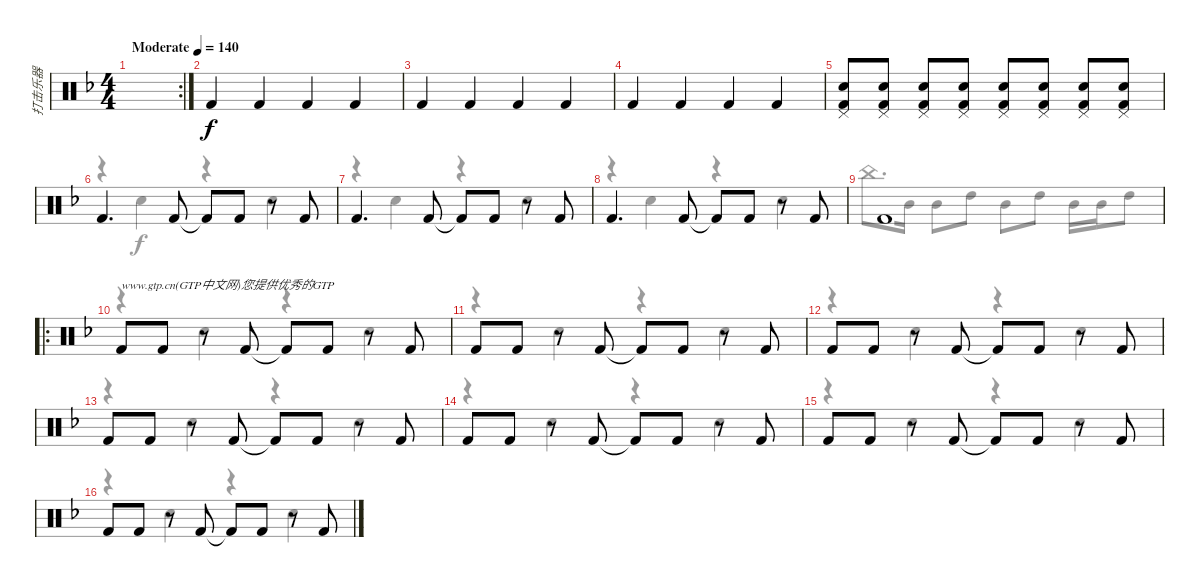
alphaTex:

\track ("打击乐器" "打击乐器") {instrument percussion}
\staff {score}
\articulation defaults
\voice
\rc 2
\ts (4 4)
\tempo (140 "Moderate")
\clef neutral
\ks f
|
"Kick (hit) 2".4 "Kick (hit) 2".4 "Kick (hit) 2".4 "Kick (hit) 2".4 |
"Kick (hit) 2".4 "Kick (hit) 2".4 "Kick (hit) 2".4 "Kick (hit) 2".4 |
"Kick (hit) 2".4 "Kick (hit) 2".4 "Kick (hit) 2".4 "Kick (hit) 2".4 |
("Pedal Hi-Hat (hit)" "Snare (hit) 2" "Kick (hit) 2").8 ("Pedal Hi-Hat (hit)" "Snare (hit) 2" "Kick (hit) 2").8 ("Pedal Hi-Hat (hit)" "Snare (hit) 2" "Kick (hit) 2").8 ("Pedal Hi-Hat (hit)" "Snare (hit) 2" "Kick (hit) 2").8 ("Pedal Hi-Hat (hit)" "Snare (hit) 2" "Kick (hit) 2").8 ("Pedal Hi-Hat (hit)" "Snare (hit) 2" "Kick (hit) 2").8 ("Pedal Hi-Hat (hit)" "Snare (hit) 2" "Kick (hit) 2").8 ("Pedal Hi-Hat (hit)" "Snare (hit) 2" "Kick (hit) 2").8 |
"Kick (hit) 2".4{d} "Kick (hit) 2".8 "Kick (hit) 2"{t}.8 "Kick (hit) 2".8 r.8 "Kick (hit) 2".8 |
"Kick (hit) 2".4{d} "Kick (hit) 2".8 "Kick (hit) 2"{t}.8 "Kick (hit) 2".8 r.8 "Kick (hit) 2".8 |
"Kick (hit) 2".4{d} "Kick (hit) 2".8 "Kick (hit) 2"{t}.8 "Kick (hit) 2".8 r.8 "Kick (hit) 2".8 |
"Kick (hit) 2".1 |
\ro "Kick (hit) 2".8{txt "www.gtp.cn(GTP中文网)您提供优秀的GTP"} "Kick (hit) 2".8
r.8 "Kick (hit) 2".8 "Kick (hit) 2"{t}.8 "Kick (hit) 2".8 r.8 "Kick (hit) 2".8 |
"Kick (hit) 2".8 "Kick (hit) 2".8 r.8 "Kick (hit) 2".8 "Kick (hit) 2"{t}.8 "Kick (hit) 2".8 r.8 "Kick (hit) 2".8 |
"Kick (hit) 2".8 "Kick (hit) 2".8 r.8 "Kick (hit) 2".8 "Kick (hit) 2"{t}.8 "Kick (hit) 2".8 r.8 "Kick (hit) 2".8 |
"Kick (hit) 2".8 "Kick (hit) 2".8 r.8 "Kick (hit) 2".8 "Kick (hit) 2"{t}.8 "Kick (hit) 2".8 r.8 "Kick (hit) 2".8 |
"Kick (hit) 2".8 "Kick (hit) 2".8 r.8 "Kick (hit) 2".8 "Kick (hit) 2"{t}.8 "Kick (hit) 2".8 r.8 "Kick (hit) 2".8 |
"Kick (hit) 2".8 "Kick (hit) 2".8 r.8 "Kick (hit) 2".8 "Kick (hit) 2"{t}.8 "Kick (hit) 2".8 r.8 "Kick (hit) 2".8 |
"Kick (hit) 2".8 "Kick (hit) 2".8 r.8 "Kick (hit) 2".8 "Kick (hit) 2"{t}.8 "Kick (hit) 2".8 r.8 "Kick (hit) 2".8
\voice
\clef neutral
\ottava regular
\simile none
\ks f
|
|
|
|
|
r.4 "Snare (hit) 2".4 r.4 "Snare (hit) 2".4 |
r.4 "Snare (hit) 2".4 r.4 "Snare (hit) 2".4 |
r.4 "Snare (hit) 2".4 r.4 "Snare (hit) 2".4 |
"China (hit)".8{d} "Mid Tom (hit)".16 "Mid Tom (hit)".8 "High Tom (hit)".8 "Mid Tom (hit)".8 "High Tom (hit)".8 "Mid Tom (hit)".16 "Mid Tom (hit)".16 "High Tom (hit)".8 |
r.4 "Snare (hit) 2".4 r.4 "Snare (hit) 2".4 |
r.4 "Snare (hit) 2".4 r.4 "Snare (hit) 2".4 |
r.4 "Snare (hit) 2".4 r.4 "Snare (hit) 2".4 |
r.4 "Snare (hit) 2".4 r.4 "Snare (hit) 2".4 |
r.4 "Snare (hit) 2".4 r.4 "Snare (hit) 2".4 |
r.4 "Snare (hit) 2".4 r.4 "Snare (hit) 2".4 |
r.4 "Snare (hit) 2".4 r.4 "Snare (hit) 2".4
